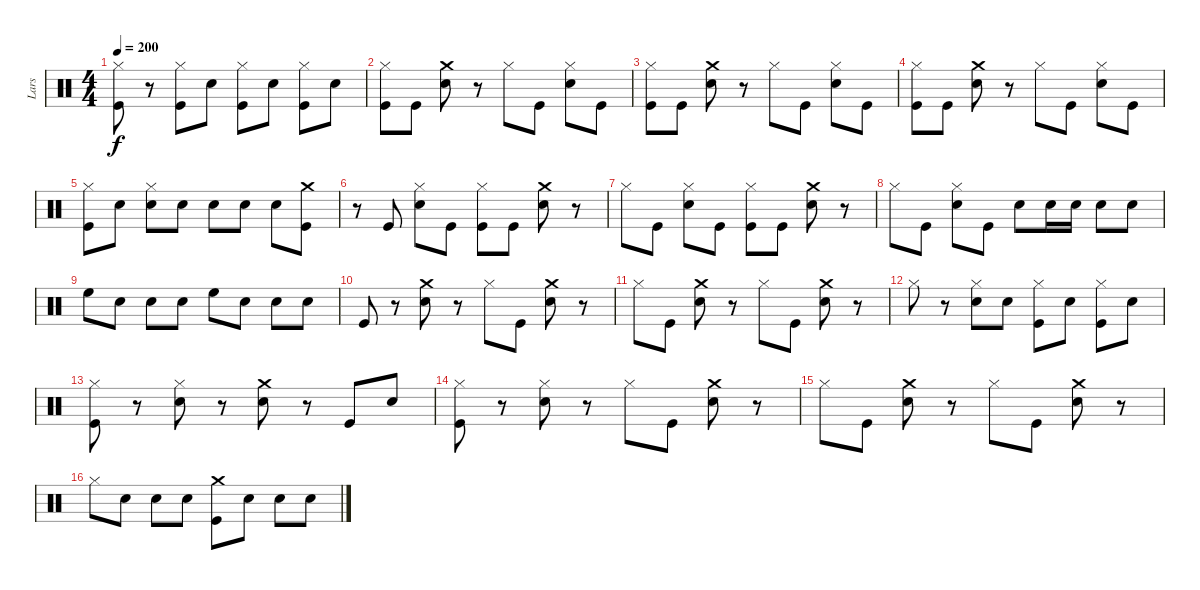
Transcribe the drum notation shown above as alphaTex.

\track ("Lars" "Lars") {instrument percussion}
\staff {score}
\articulation defaults
\ts (4 4)
\tempo 200
\clef neutral
\ks c
("Kick (hit)" "Hi-Hat (closed)").8{dy f} r.8 ("Kick (hit)" "Hi-Hat (closed)").8 "Snare (hit) 2".8 ("Kick (hit)" "Hi-Hat (closed)").8 "Snare (hit) 2".8 ("Kick (hit)" "Hi-Hat (closed)").8 "Snare (hit) 2".8 |
("Kick (hit)" "Hi-Hat (closed)").8 "Kick (hit)".8 ("Crash medium (hit)" "Snare (hit) 2").8 r.8 "Hi-Hat (closed)".8 "Kick (hit)".8 ("Snare (hit) 2" "Hi-Hat (closed)").8 "Kick (hit)".8 |
("Kick (hit)" "Hi-Hat (closed)").8 "Kick (hit)".8 ("Crash medium (hit)" "Snare (hit) 2").8 r.8 "Hi-Hat (closed)".8 "Kick (hit)".8 ("Snare (hit) 2" "Hi-Hat (closed)").8 "Kick (hit)".8 |
("Kick (hit)" "Hi-Hat (closed)").8 "Kick (hit)".8 ("Crash medium (hit)" "Snare (hit) 2").8 r.8 "Hi-Hat (closed)".8 "Kick (hit)".8 ("Snare (hit) 2" "Hi-Hat (closed)").8 "Kick (hit)".8 |
("Hi-Hat (closed)" "Kick (hit)").8 "Snare (hit) 2".8 ("Hi-Hat (closed)" "Snare (hit) 2").8 "Snare (hit) 2".8 "Snare (hit) 2".8 "Snare (hit) 2".8 "Snare (hit) 2".8 ("Crash medium (hit)" "Kick (hit)").8 |
r.8 "Kick (hit)".8 ("Hi-Hat (closed)" "Snare (hit) 2").8 "Kick (hit)".8 ("Hi-Hat (closed)" "Kick (hit)").8 "Kick (hit)".8 ("Crash medium (hit)" "Snare (hit) 2").8 r.8 |
"Hi-Hat (closed)".8 "Kick (hit)".8 ("Hi-Hat (closed)" "Snare (hit) 2").8 "Kick (hit)".8 ("Hi-Hat (closed)" "Kick (hit)").8 "Kick (hit)".8 ("Crash medium (hit)" "Snare (hit) 2").8 r.8 |
"Hi-Hat (closed)".8 "Kick (hit)".8 ("Hi-Hat (closed)" "Snare (hit) 2").8 "Kick (hit)".8 "Snare (hit) 2".8 "Snare (hit) 2".16 "Snare (hit) 2".16 "Snare (hit) 2".8 "Snare (hit) 2".8 |
"High Floor Tom (hit)".8 "Snare (hit) 2".8 "Snare (hit) 2".8 "Snare (hit) 2".8 "High Floor Tom (hit)".8 "Snare (hit) 2".8 "Snare (hit) 2".8 "Snare (hit) 2".8 |
"Kick (hit)".8 r.8 ("Crash medium (hit)" "Snare (hit) 2").8 r.8 "Hi-Hat (closed)".8 "Kick (hit)".8 ("Crash medium (hit)" "Snare (hit) 2").8 r.8 |
"Hi-Hat (closed)".8 "Kick (hit)".8 ("Crash medium (hit)" "Snare (hit) 2").8 r.8 "Hi-Hat (closed)".8 "Kick (hit)".8 ("Crash medium (hit)" "Snare (hit) 2").8 r.8 |
"Hi-Hat (closed)".8 r.8 ("Snare (hit) 2" "Hi-Hat (closed)").8 "Snare (hit) 2".8 ("Hi-Hat (closed)" "Kick (hit)").8 "Snare (hit) 2".8 ("Hi-Hat (closed)" "Kick (hit)").8 "Snare (hit) 2".8 |
("Hi-Hat (closed)" "Kick (hit)").8 r.8 ("Hi-Hat (closed)" "Snare (hit) 2").8 r.8 ("Crash medium (hit)" "Snare (hit) 2").8 r.8 "Kick (hit)".8 "Snare (hit) 2".8 |
("Hi-Hat (closed)" "Kick (hit)").8 r.8 ("Hi-Hat (closed)" "Snare (hit) 2").8 r.8 "Hi-Hat (closed)".8 "Kick (hit)".8 ("Crash medium (hit)" "Snare (hit) 2").8 r.8 |
"Hi-Hat (closed)".8 "Kick (hit)".8 ("Crash medium (hit)" "Snare (hit) 2").8 r.8 "Hi-Hat (closed)".8 "Kick (hit)".8 ("Crash medium (hit)" "Snare (hit) 2").8 r.8 |
"Hi-Hat (closed)".8 "Snare (hit) 2".8 "Snare (hit) 2".8 "Snare (hit) 2".8 ("Crash medium (hit)" "Kick (hit)").8 "Snare (hit) 2".8 "Snare (hit) 2".8 "Snare (hit) 2".8
